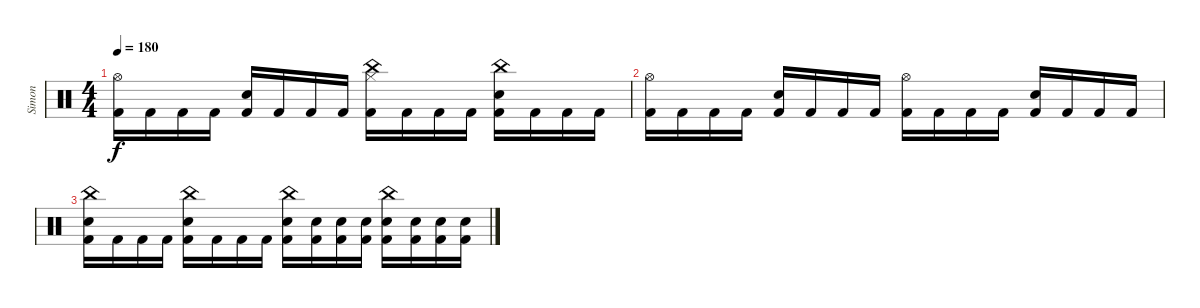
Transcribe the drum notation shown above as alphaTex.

\track ("Simon" "Simon") {instrument percussion}
\staff {score}
\articulation defaults
\ts (4 4)
\tempo 180
\clef neutral
\ks c
("Hi-Hat (open)" "Kick (hit) 2").16{dy f} "Kick (hit) 2".16 "Kick (hit) 2".16 "Kick (hit) 2".16 ("Electric Snare (hit)" "Kick (hit) 2").16 "Kick (hit) 2".16 "Kick (hit) 2".16 "Kick (hit) 2".16 ("China (hit)" "Hi-Hat (closed)" "Kick (hit) 2").16 "Kick (hit) 2".16 "Kick (hit) 2".16 "Kick (hit) 2".16 ("China (hit)" "Electric Snare (hit)" "Kick (hit) 2").16 "Kick (hit) 2".16 "Kick (hit) 2".16 "Kick (hit) 2".16 |
("Hi-Hat (open)" "Kick (hit) 2").16 "Kick (hit) 2".16 "Kick (hit) 2".16 "Kick (hit) 2".16 ("Electric Snare (hit)" "Kick (hit) 2").16 "Kick (hit) 2".16 "Kick (hit) 2".16 "Kick (hit) 2".16 ("Hi-Hat (open)" "Kick (hit) 2").16 "Kick (hit) 2".16 "Kick (hit) 2".16 "Kick (hit) 2".16 ("Electric Snare (hit)" "Kick (hit) 2").16 "Kick (hit) 2".16 "Kick (hit) 2".16 "Kick (hit) 2".16 |
("China (hit)" "Electric Snare (hit)" "Kick (hit) 2").16 "Kick (hit) 2".16 "Kick (hit) 2".16 "Kick (hit) 2".16 ("China (hit)" "Electric Snare (hit)" "Kick (hit) 2").16 "Kick (hit) 2".16 "Kick (hit) 2".16 "Kick (hit) 2".16 ("China (hit)" "Electric Snare (hit)" "Kick (hit) 2").16 ("Electric Snare (hit)" "Kick (hit) 2").16 ("Electric Snare (hit)" "Kick (hit) 2").16 ("Electric Snare (hit)" "Kick (hit) 2").16 ("China (hit)" "Electric Snare (hit)" "Kick (hit) 2").16 ("Electric Snare (hit)" "Kick (hit) 2").16 ("Electric Snare (hit)" "Kick (hit) 2").16 ("Electric Snare (hit)" "Kick (hit) 2").16
